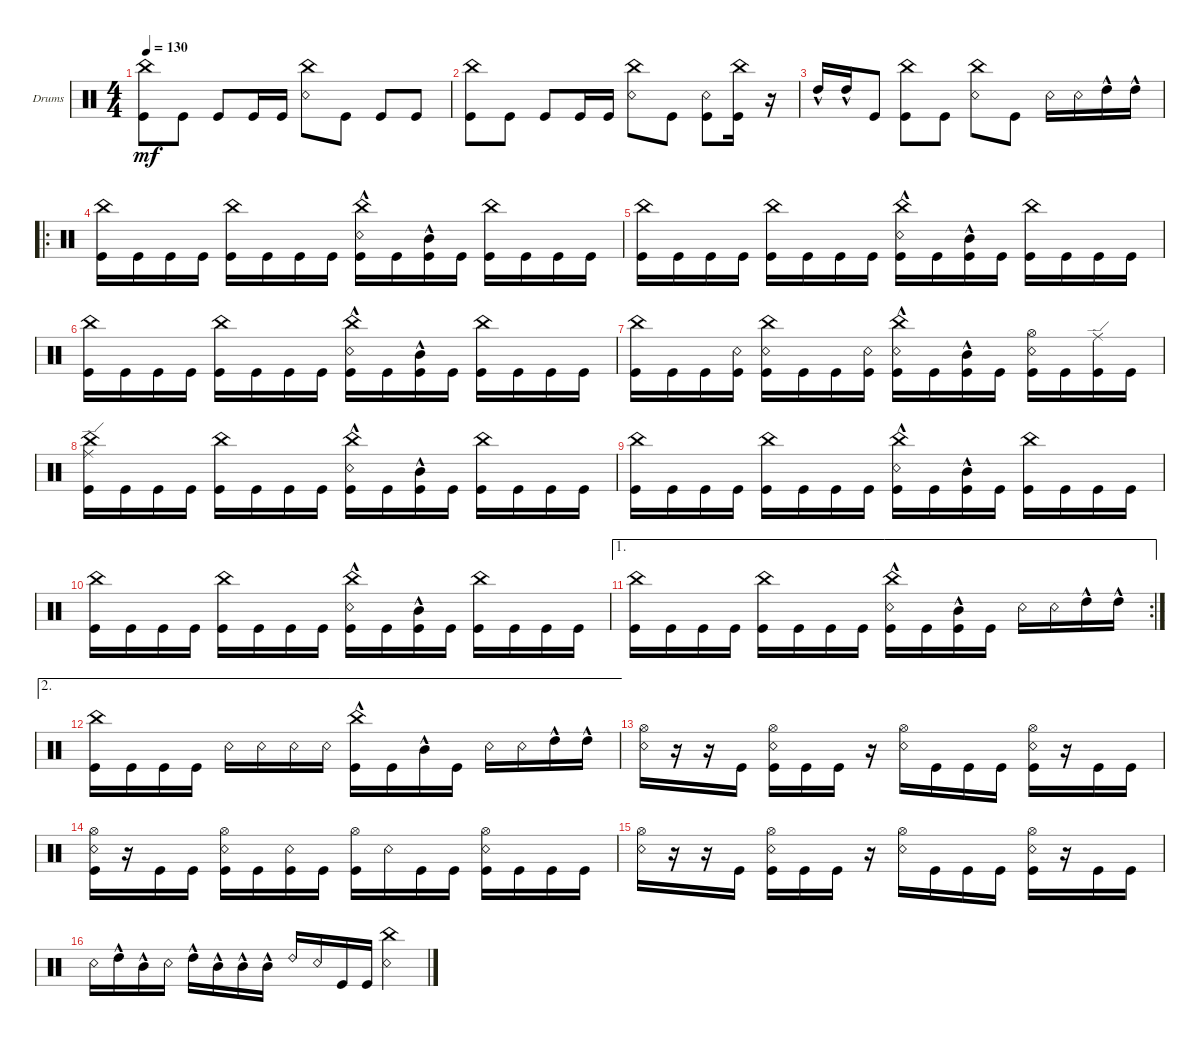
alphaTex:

\defaultSystemsLayout 4
\bracketExtendMode groupsimilarinstruments
\firstSystemTrackNameOrientation horizontal
\otherSystemsTrackNameOrientation horizontal
\track ("Drumkit" "Drums") {instrument percussion}
\staff {score}
\articulation defaults
\ts (4 4)
\tempo 130
\clef neutral
\ks c
("China (hit)" "Kick (hit)").8{dy mf} "Kick (hit)".8 "Kick (hit)".8 "Kick (hit)".16 "Kick (hit)".16 ("Snare (rim shot)" "China (hit)").8 "Kick (hit)".8 "Kick (hit)".8 "Kick (hit)".8 |
("China (hit)" "Kick (hit)").8 "Kick (hit)".8 "Kick (hit)".8 "Kick (hit)".16 "Kick (hit)".16 ("Snare (rim shot)" "China (hit)").8 "Kick (hit)".8 ("Kick (hit)" "Snare (rim shot)").8 ("Kick (hit)" "China (hit)").16 r.16 |
"High Tom (hit)"{hac}.16 "High Tom (hit)"{hac}.16 "Kick (hit)".8 ("Kick (hit)" "China (hit)").8 "Kick (hit)".8 ("Snare (rim shot)" "China (hit)").8 "Kick (hit)".8 "Snare (rim shot)".16 "Snare (rim shot)".16 "High Tom (hit)"{hac}.16 "High Tom (hit)"{hac}.16 |
\ro
("Kick (hit)" "China (hit)").16 "Kick (hit)".16 "Kick (hit)".16 "Kick (hit)".16 ("Kick (hit)" "China (hit)").16 "Kick (hit)".16 "Kick (hit)".16 "Kick (hit)".16 ("Kick (hit)"{hac} "Snare (rim shot)" "China (hit)").16 "Kick (hit)".16 ("Kick (hit)"{hac} "Mid Tom (hit)"{hac}).16 "Kick (hit)".16 ("Kick (hit)" "China (hit)").16 "Kick (hit)".16 "Kick (hit)".16 "Kick (hit)".16 |
("Kick (hit)" "China (hit)").16 "Kick (hit)".16 "Kick (hit)".16 "Kick (hit)".16 ("Kick (hit)" "China (hit)").16 "Kick (hit)".16 "Kick (hit)".16 "Kick (hit)".16 ("Kick (hit)"{hac} "Snare (rim shot)" "China (hit)").16 "Kick (hit)".16 ("Kick (hit)"{hac} "Mid Tom (hit)"{hac}).16 "Kick (hit)".16 ("Kick (hit)" "China (hit)").16 "Kick (hit)".16 "Kick (hit)".16 "Kick (hit)".16 |
("Kick (hit)" "China (hit)").16 "Kick (hit)".16 "Kick (hit)".16 "Kick (hit)".16 ("Kick (hit)" "China (hit)").16 "Kick (hit)".16 "Kick (hit)".16 "Kick (hit)".16 ("Kick (hit)"{hac} "Snare (rim shot)" "China (hit)").16 "Kick (hit)".16 ("Kick (hit)"{hac} "Mid Tom (hit)"{hac}).16 "Kick (hit)".16 ("Kick (hit)" "China (hit)").16 "Kick (hit)".16 "Kick (hit)".16 "Kick (hit)".16 |
("Kick (hit)" "China (hit)").16 "Kick (hit)".16 "Kick (hit)".16 ("Kick (hit)" "Snare (rim shot)").16 ("Kick (hit)" "China (hit)" "Snare (rim shot)").16 "Kick (hit)".16 "Kick (hit)".16 ("Kick (hit)" "Snare (rim shot)").16 ("Kick (hit)"{hac} "Snare (rim shot)" "China (hit)").16 "Kick (hit)".16 ("Kick (hit)"{hac} "Mid Tom (hit)"{hac}).16 "Kick (hit)".16 ("Kick (hit)" "Snare (rim shot)" "Hi-Hat (open)").16 "Kick (hit)".16 ("Kick (hit)" "Ride (edge)").16 "Kick (hit)".16 |
("Kick (hit)" "China (hit)" "Ride (edge)").16 "Kick (hit)".16 "Kick (hit)".16 "Kick (hit)".16 ("Kick (hit)" "China (hit)").16 "Kick (hit)".16 "Kick (hit)".16 "Kick (hit)".16 ("Kick (hit)"{hac} "Snare (rim shot)" "China (hit)").16 "Kick (hit)".16 ("Kick (hit)"{hac} "Mid Tom (hit)"{hac}).16 "Kick (hit)".16 ("Kick (hit)" "China (hit)").16 "Kick (hit)".16 "Kick (hit)".16 "Kick (hit)".16 |
("Kick (hit)" "China (hit)").16 "Kick (hit)".16 "Kick (hit)".16 "Kick (hit)".16 ("Kick (hit)" "China (hit)").16 "Kick (hit)".16 "Kick (hit)".16 "Kick (hit)".16 ("Kick (hit)"{hac} "Snare (rim shot)" "China (hit)").16 "Kick (hit)".16 ("Kick (hit)"{hac} "Mid Tom (hit)"{hac}).16 "Kick (hit)".16 ("Kick (hit)" "China (hit)").16 "Kick (hit)".16 "Kick (hit)".16 "Kick (hit)".16 |
("Kick (hit)" "China (hit)").16 "Kick (hit)".16 "Kick (hit)".16 "Kick (hit)".16 ("Kick (hit)" "China (hit)").16 "Kick (hit)".16 "Kick (hit)".16 "Kick (hit)".16 ("Kick (hit)"{hac} "Snare (rim shot)" "China (hit)").16 "Kick (hit)".16 ("Kick (hit)"{hac} "Mid Tom (hit)"{hac}).16 "Kick (hit)".16 ("Kick (hit)" "China (hit)").16 "Kick (hit)".16 "Kick (hit)".16 "Kick (hit)".16 |
\ae 1
\rc 2
("Kick (hit)" "China (hit)").16 "Kick (hit)".16 "Kick (hit)".16 "Kick (hit)".16 ("Kick (hit)" "China (hit)").16 "Kick (hit)".16 "Kick (hit)".16 "Kick (hit)".16 ("Kick (hit)"{hac} "Snare (rim shot)" "China (hit)").16 "Kick (hit)".16 ("Kick (hit)"{hac} "Mid Tom (hit)"{hac}).16 "Kick (hit)".16 "Snare (rim shot)".16 "Snare (rim shot)".16 "High Tom (hit)"{hac}.16 "High Tom (hit)"{hac}.16 |
\ae 2
("Kick (hit)" "China (hit)").16 "Kick (hit)".16 "Kick (hit)".16 "Kick (hit)".16 "Snare (rim shot)".16 "Snare (rim shot)".16 "Snare (rim shot)".16 "Snare (rim shot)".16 ("Kick (hit)"{hac} "China (hit)").16 "Kick (hit)".16 "Mid Tom (hit)"{hac}.16 "Kick (hit)".16 "Snare (rim shot)".16 "Snare (rim shot)".16 "High Tom (hit)"{hac}.16 "High Tom (hit)"{hac}.16 |
("Snare (rim shot)" "Hi-Hat (open)").16 r.16 r.16 "Kick (hit)".16 ("Kick (hit)" "Hi-Hat (open)" "Snare (rim shot)").16 "Kick (hit)".16 "Kick (hit)".16 r.16 ("Hi-Hat (open)" "Snare (rim shot)").16 "Kick (hit)".16 "Kick (hit)".16 "Kick (hit)".16 ("Kick (hit)" "Snare (rim shot)" "Hi-Hat (open)").16 r.16 "Kick (hit)".16 "Kick (hit)".16 |
("Kick (hit)" "Snare (rim shot)" "Hi-Hat (open)").16 r.16 "Kick (hit)".16 "Kick (hit)".16 ("Kick (hit)" "Snare (rim shot)" "Hi-Hat (open)").16 "Kick (hit)".16 ("Kick (hit)" "Snare (rim shot)").16 "Kick (hit)".16 ("Kick (hit)" "Hi-Hat (open)").16 "Snare (rim shot)".16 "Kick (hit)".16 "Kick (hit)".16 ("Kick (hit)" "Snare (rim shot)" "Hi-Hat (open)").16 "Kick (hit)".16 "Kick (hit)".16 "Kick (hit)".16 |
("Snare (rim shot)" "Hi-Hat (open)").16 r.16 r.16 "Kick (hit)".16 ("Kick (hit)" "Hi-Hat (open)" "Snare (rim shot)").16 "Kick (hit)".16 "Kick (hit)".16 r.16 ("Hi-Hat (open)" "Snare (rim shot)").16 "Kick (hit)".16 "Kick (hit)".16 "Kick (hit)".16 ("Kick (hit)" "Snare (rim shot)" "Hi-Hat (open)").16 r.16 "Kick (hit)".16 "Kick (hit)".16 |
"Snare (rim shot)".16 "High Tom (hit)"{hac}.16 "Mid Tom (hit)"{hac}.16 "Snare (rim shot)".16 "High Tom (hit)"{hac}.16 "Mid Tom (hit)"{hac}.16 "Mid Tom (hit)"{hac}.16 "Mid Tom (hit)"{hac}.16 "Ride (bell) 2".16 "Snare (rim shot)".16 "Kick (hit)".16 "Kick (hit)".16 ("Snare (rim shot)" "China (hit)").4
